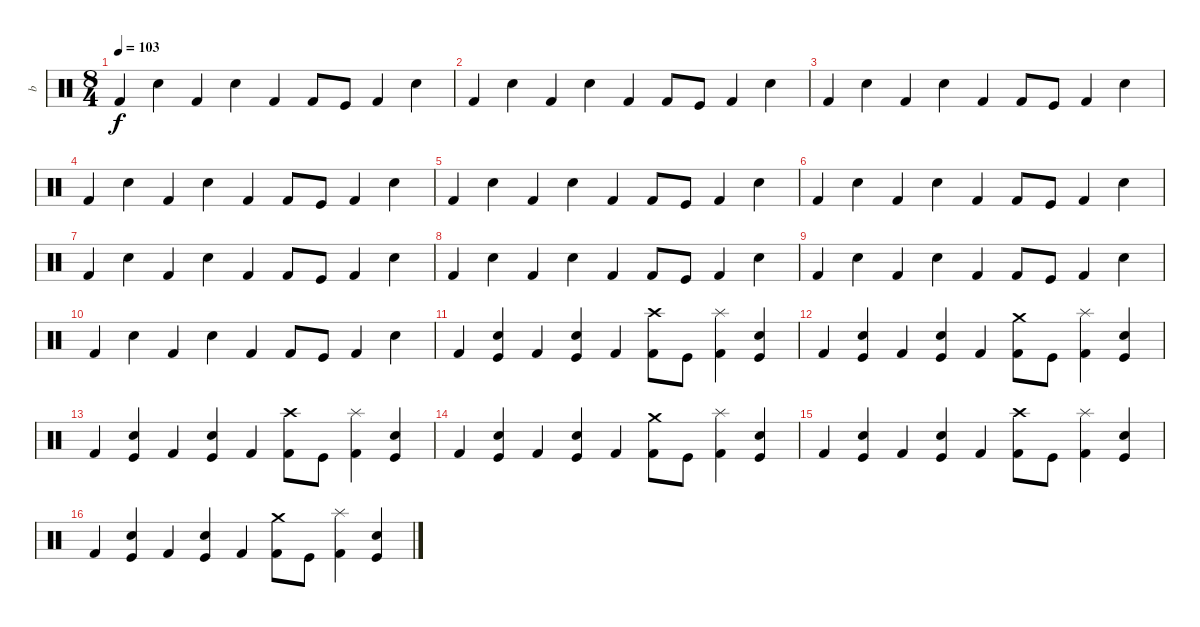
\track ("b" "b") {instrument percussion}
\staff {score}
\articulation defaults
\ts (8 4)
\tempo 103
\clef neutral
\ks c "Kick (hit) 2".4{dy f} "Snare (hit) 2".4 "Kick (hit) 2".4 "Snare (hit) 2".4 "Kick (hit) 2".4 "Kick (hit) 2".8 "Kick (hit)".8 "Kick (hit) 2".4 "Snare (hit) 2".4
|
"Kick (hit) 2".4 "Snare (hit) 2".4 "Kick (hit) 2".4 "Snare (hit) 2".4 "Kick (hit) 2".4 "Kick (hit) 2".8 "Kick (hit)".8 "Kick (hit) 2".4 "Snare (hit) 2".4 |
"Kick (hit) 2".4 "Snare (hit) 2".4 "Kick (hit) 2".4 "Snare (hit) 2".4 "Kick (hit) 2".4 "Kick (hit) 2".8 "Kick (hit)".8 "Kick (hit) 2".4 "Snare (hit) 2".4 |
"Kick (hit) 2".4 "Snare (hit) 2".4 "Kick (hit) 2".4 "Snare (hit) 2".4 "Kick (hit) 2".4 "Kick (hit) 2".8 "Kick (hit)".8 "Kick (hit) 2".4 "Snare (hit) 2".4 |
"Kick (hit) 2".4 "Snare (hit) 2".4 "Kick (hit) 2".4 "Snare (hit) 2".4 "Kick (hit) 2".4 "Kick (hit) 2".8 "Kick (hit)".8 "Kick (hit) 2".4 "Snare (hit) 2".4 |
"Kick (hit) 2".4 "Snare (hit) 2".4 "Kick (hit) 2".4 "Snare (hit) 2".4 "Kick (hit) 2".4 "Kick (hit) 2".8 "Kick (hit)".8 "Kick (hit) 2".4 "Snare (hit) 2".4 |
"Kick (hit) 2".4 "Snare (hit) 2".4 "Kick (hit) 2".4 "Snare (hit) 2".4 "Kick (hit) 2".4 "Kick (hit) 2".8 "Kick (hit)".8 "Kick (hit) 2".4 "Snare (hit) 2".4 |
"Kick (hit) 2".4 "Snare (hit) 2".4 "Kick (hit) 2".4 "Snare (hit) 2".4 "Kick (hit) 2".4 "Kick (hit) 2".8 "Kick (hit)".8 "Kick (hit) 2".4 "Snare (hit) 2".4 |
"Kick (hit) 2".4 "Snare (hit) 2".4 "Kick (hit) 2".4 "Snare (hit) 2".4 "Kick (hit) 2".4 "Kick (hit) 2".8 "Kick (hit)".8 "Kick (hit) 2".4 "Snare (hit) 2".4 |
"Kick (hit) 2".4 "Snare (hit) 2".4 "Kick (hit) 2".4 "Snare (hit) 2".4 "Kick (hit) 2".4 "Kick (hit) 2".8 "Kick (hit)".8 "Kick (hit) 2".4 "Snare (hit) 2".4 |
"Kick (hit) 2".4 ("Snare (hit) 2" "Kick (hit)").4 "Kick (hit) 2".4 ("Snare (hit) 2" "Kick (hit)").4 "Kick (hit) 2".4 ("Crash high (hit)" "Kick (hit) 2").8 "Kick (hit)".8 ("Splash (hit)" "Kick (hit) 2").4 ("Snare (hit) 2" "Kick (hit)").4 |
"Kick (hit) 2".4 ("Snare (hit) 2" "Kick (hit)").4 "Kick (hit) 2".4 ("Snare (hit) 2" "Kick (hit)").4 "Kick (hit) 2".4 ("Crash medium (hit)" "Kick (hit) 2").8 "Kick (hit)".8 ("Splash (hit)" "Kick (hit) 2").4 ("Snare (hit) 2" "Kick (hit)").4 |
"Kick (hit) 2".4 ("Snare (hit) 2" "Kick (hit)").4 "Kick (hit) 2".4 ("Snare (hit) 2" "Kick (hit)").4 "Kick (hit) 2".4 ("Crash high (hit)" "Kick (hit) 2").8 "Kick (hit)".8 ("Splash (hit)" "Kick (hit) 2").4 ("Snare (hit) 2" "Kick (hit)").4 |
"Kick (hit) 2".4 ("Snare (hit) 2" "Kick (hit)").4 "Kick (hit) 2".4 ("Snare (hit) 2" "Kick (hit)").4 "Kick (hit) 2".4 ("Crash medium (hit)" "Kick (hit) 2").8 "Kick (hit)".8 ("Splash (hit)" "Kick (hit) 2").4 ("Snare (hit) 2" "Kick (hit)").4 |
"Kick (hit) 2".4 ("Snare (hit) 2" "Kick (hit)").4 "Kick (hit) 2".4 ("Snare (hit) 2" "Kick (hit)").4 "Kick (hit) 2".4 ("Crash high (hit)" "Kick (hit) 2").8 "Kick (hit)".8 ("Splash (hit)" "Kick (hit) 2").4 ("Snare (hit) 2" "Kick (hit)").4 |
"Kick (hit) 2".4 ("Snare (hit) 2" "Kick (hit)").4 "Kick (hit) 2".4 ("Snare (hit) 2" "Kick (hit)").4 "Kick (hit) 2".4 ("Crash medium (hit)" "Kick (hit) 2").8 "Kick (hit)".8 ("Splash (hit)" "Kick (hit) 2").4 ("Snare (hit) 2" "Kick (hit)").4
